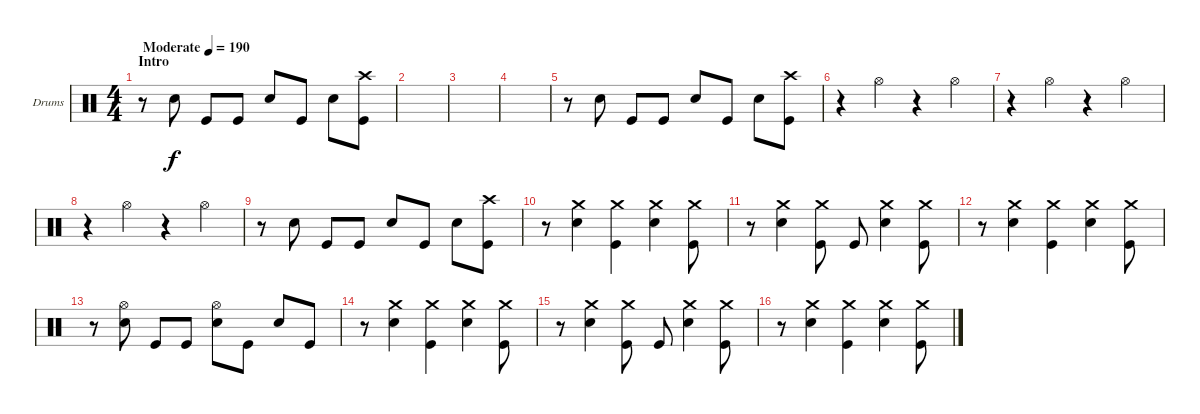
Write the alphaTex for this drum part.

\bracketExtendMode groupsimilarinstruments
\firstSystemTrackNameOrientation horizontal
\otherSystemsTrackNameOrientation horizontal
\track ("Drumkit" "Drums") {instrument percussion}
\staff {score}
\articulation defaults
\ts (4 4)
\beaming (8 2 2 2 2)
\section ("" "Intro")
\tempo (190 "Moderate")
\clef neutral
\scale
0.472222
\ks c
r.8{dy f} "Snare (hit) 2".8 "Kick (hit)".8 "Kick (hit)".8 "Snare (hit) 2".8 "Kick (hit)".8 "Snare (hit) 2".8 ("Kick (hit)" "Crash high (hit)").8 |
\scale
0.263889 |
\scale
0.263889 |
\scale
0.333333 |
\scale
0.333333 r.8 "Snare (hit) 2".8 "Kick (hit)".8 "Kick (hit)".8 "Snare (hit) 2".8 "Kick (hit)".8 "Snare (hit) 2".8 ("Kick (hit)" "Crash high (hit)").8 |
\scale
0.333333 r.4 "Hi-Hat (open)".4 r.4 "Hi-Hat (open)".4 |
\scale
0.333333 r.4 "Hi-Hat (open)".4 r.4 "Hi-Hat (open)".4 |
\scale
0.333333 r.4 "Hi-Hat (open)".4 r.4 "Hi-Hat (open)".4 |
\scale
0.333333 r.8 "Snare (hit) 2".8 "Kick (hit)".8 "Kick (hit)".8 "Snare (hit) 2".8 "Kick (hit)".8 "Snare (hit) 2".8 ("Kick (hit)" "Crash high (hit)").8 |
\scale
0.333333 r.8 ("Snare (hit) 2" "Crash medium (hit)").4 ("Kick (hit)" "Crash medium (hit)").4 ("Snare (hit) 2" "Crash medium (hit)").4 ("Kick (hit)" "Crash medium (hit)").8 |
\scale
0.333333 r.8 ("Snare (hit) 2" "Crash medium (hit)").4 ("Kick (hit)" "Crash medium (hit)").8 "Kick (hit)".8 ("Snare (hit) 2" "Crash medium (hit)").4 ("Kick (hit)" "Crash medium (hit)").8 |
\scale
0.333333 r.8 ("Snare (hit) 2" "Crash medium (hit)").4 ("Kick (hit)" "Crash medium (hit)").4 ("Snare (hit) 2" "Crash medium (hit)").4 ("Kick (hit)" "Crash medium (hit)").8 |
\scale
0.333333 r.8 ("Snare (hit) 2" "Hi-Hat (open)").8 "Kick (hit)".8 "Kick (hit)".8 ("Snare (hit) 2" "Hi-Hat (open)").8 "Kick (hit)".8 "Snare (hit) 2".8 "Kick (hit)".8 |
\scale
0.333333 r.8 ("Snare (hit) 2" "Crash medium (hit)").4 ("Kick (hit)" "Crash medium (hit)").4 ("Snare (hit) 2" "Crash medium (hit)").4 ("Kick (hit)" "Crash medium (hit)").8 |
\scale
0.333333 r.8 ("Snare (hit) 2" "Crash medium (hit)").4 ("Kick (hit)" "Crash medium (hit)").8 "Kick (hit)".8 ("Snare (hit) 2" "Crash medium (hit)").4 ("Kick (hit)" "Crash medium (hit)").8 |
\scale
0.333333 r.8 ("Snare (hit) 2" "Crash medium (hit)").4 ("Kick (hit)" "Crash medium (hit)").4 ("Snare (hit) 2" "Crash medium (hit)").4 ("Kick (hit)" "Crash medium (hit)").8
